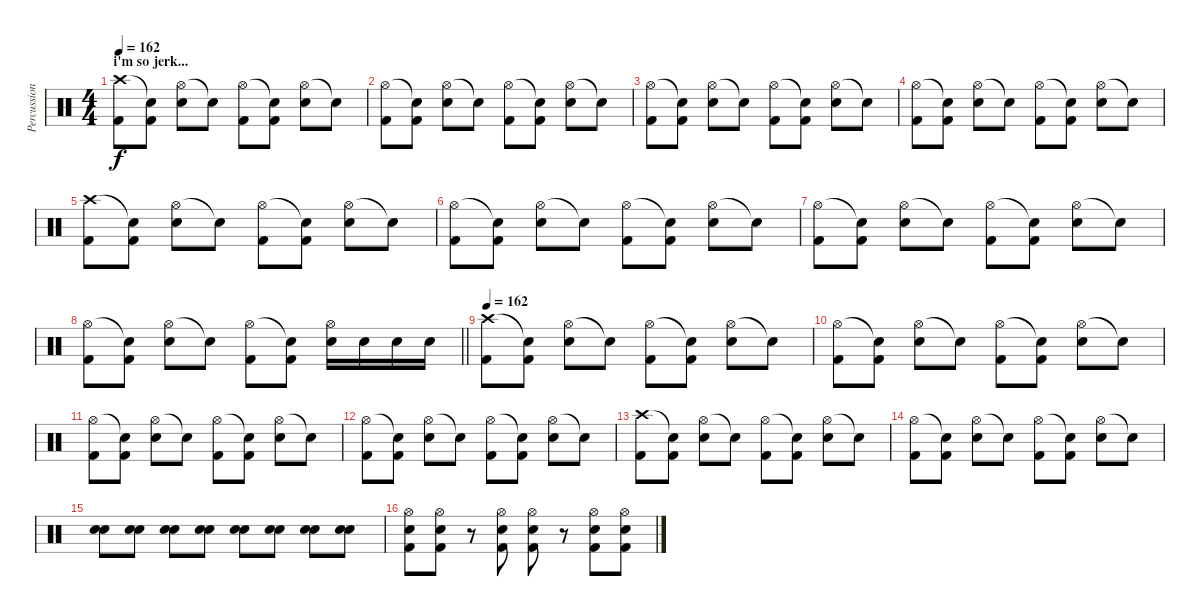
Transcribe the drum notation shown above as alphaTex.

\track ("Percussioni" "Percussion") {instrument percussion}
\staff {score}
\articulation defaults
\ts (4 4)
\section ("" "i'm so jerk...")
\tempo 162
\clef neutral
\ks c
("Crash high (hit)" "Kick (hit) 2").8{dy f} ("Snare (hit)"{t} "Kick (hit) 2").8 ("Hi-Hat (open)" "Snare (hit) 2").8 "Snare (hit)"{t}.8 ("Hi-Hat (open)" "Kick (hit) 2").8 ("Snare (hit)"{t} "Kick (hit) 2").8 ("Hi-Hat (open)" "Snare (hit) 2").8 "Snare (hit)"{t}.8 |
("Hi-Hat (open)" "Kick (hit) 2").8 ("Snare (hit)"{t} "Kick (hit) 2").8 ("Hi-Hat (open)" "Snare (hit) 2").8 "Snare (hit)"{t}.8 ("Hi-Hat (open)" "Kick (hit) 2").8 ("Snare (hit)"{t} "Kick (hit) 2").8 ("Hi-Hat (open)" "Snare (hit) 2").8 "Snare (hit)"{t}.8 |
("Hi-Hat (open)" "Kick (hit) 2").8 ("Snare (hit)"{t} "Kick (hit) 2").8 ("Hi-Hat (open)" "Snare (hit) 2").8 "Snare (hit)"{t}.8 ("Hi-Hat (open)" "Kick (hit) 2").8 ("Snare (hit)"{t} "Kick (hit) 2").8 ("Hi-Hat (open)" "Snare (hit) 2").8 "Snare (hit)"{t}.8 |
("Hi-Hat (open)" "Kick (hit) 2").8 ("Snare (hit)"{t} "Kick (hit) 2").8 ("Hi-Hat (open)" "Snare (hit) 2").8 "Snare (hit)"{t}.8 ("Hi-Hat (open)" "Kick (hit) 2").8 ("Snare (hit)"{t} "Kick (hit) 2").8 ("Hi-Hat (open)" "Snare (hit) 2").8 "Snare (hit)"{t}.8 |
("Crash high (hit)" "Kick (hit) 2").8 ("Snare (hit)"{t} "Kick (hit) 2").8 ("Hi-Hat (open)" "Snare (hit) 2").8 "Snare (hit)"{t}.8 ("Hi-Hat (open)" "Kick (hit) 2").8 ("Snare (hit)"{t} "Kick (hit) 2").8 ("Hi-Hat (open)" "Snare (hit) 2").8 "Snare (hit)"{t}.8 |
("Hi-Hat (open)" "Kick (hit) 2").8 ("Snare (hit)"{t} "Kick (hit) 2").8 ("Hi-Hat (open)" "Snare (hit) 2").8 "Snare (hit)"{t}.8 ("Hi-Hat (open)" "Kick (hit) 2").8 ("Snare (hit)"{t} "Kick (hit) 2").8 ("Hi-Hat (open)" "Snare (hit) 2").8 "Snare (hit)"{t}.8 |
("Hi-Hat (open)" "Kick (hit) 2").8 ("Snare (hit)"{t} "Kick (hit) 2").8 ("Hi-Hat (open)" "Snare (hit) 2").8 "Snare (hit)"{t}.8 ("Hi-Hat (open)" "Kick (hit) 2").8 ("Snare (hit)"{t} "Kick (hit) 2").8 ("Hi-Hat (open)" "Snare (hit) 2").8 "Snare (hit)"{t}.8 |
\barLineRight lightlight
("Hi-Hat (open)" "Kick (hit) 2").8 ("Snare (hit)"{t} "Kick (hit) 2").8 ("Hi-Hat (open)" "Snare (hit) 2").8 "Snare (hit)"{t}.8 ("Hi-Hat (open)" "Kick (hit) 2").8 ("Snare (hit)"{t} "Kick (hit) 2").8 ("Hi-Hat (open)" "Snare (hit) 2").16 "Snare (hit) 2".16 "Snare (hit) 2".16 "Snare (hit) 2".16 |
\tempo 162
("Crash high (hit)" "Kick (hit) 2").8 ("Snare (hit)"{t} "Kick (hit) 2").8 ("Hi-Hat (open)" "Snare (hit) 2").8 "Snare (hit)"{t}.8 ("Hi-Hat (open)" "Kick (hit) 2").8 ("Snare (hit)"{t} "Kick (hit) 2").8 ("Hi-Hat (open)" "Snare (hit) 2").8 "Snare (hit)"{t}.8 |
("Hi-Hat (open)" "Kick (hit) 2").8 ("Snare (hit)"{t} "Kick (hit) 2").8 ("Hi-Hat (open)" "Snare (hit) 2").8 "Snare (hit)"{t}.8 ("Hi-Hat (open)" "Kick (hit) 2").8 ("Snare (hit)"{t} "Kick (hit) 2").8 ("Hi-Hat (open)" "Snare (hit) 2").8 "Snare (hit)"{t}.8 |
("Hi-Hat (open)" "Kick (hit) 2").8 ("Snare (hit)"{t} "Kick (hit) 2").8 ("Hi-Hat (open)" "Snare (hit) 2").8 "Snare (hit)"{t}.8 ("Hi-Hat (open)" "Kick (hit) 2").8 ("Snare (hit)"{t} "Kick (hit) 2").8 ("Hi-Hat (open)" "Snare (hit) 2").8 "Snare (hit)"{t}.8 |
("Hi-Hat (open)" "Kick (hit) 2").8 ("Snare (hit)"{t} "Kick (hit) 2").8 ("Hi-Hat (open)" "Snare (hit) 2").8 "Snare (hit)"{t}.8 ("Hi-Hat (open)" "Kick (hit) 2").8 ("Snare (hit)"{t} "Kick (hit) 2").8 ("Hi-Hat (open)" "Snare (hit) 2").8 "Snare (hit)"{t}.8 |
("Crash high (hit)" "Kick (hit) 2").8 ("Snare (hit)"{t} "Kick (hit) 2").8 ("Hi-Hat (open)" "Snare (hit) 2").8 "Snare (hit)"{t}.8 ("Hi-Hat (open)" "Kick (hit) 2").8 ("Snare (hit)"{t} "Kick (hit) 2").8 ("Hi-Hat (open)" "Snare (hit) 2").8 "Snare (hit)"{t}.8 |
("Hi-Hat (open)" "Kick (hit) 2").8 ("Snare (hit)"{t} "Kick (hit) 2").8 ("Hi-Hat (open)" "Snare (hit) 2").8 "Snare (hit)"{t}.8 ("Hi-Hat (open)" "Kick (hit) 2").8 ("Snare (hit)"{t} "Kick (hit) 2").8 ("Hi-Hat (open)" "Snare (hit) 2").8 "Snare (hit)"{t}.8 |
("Snare (hit) 2" "Snare (hit) 2").8{volume 7} ("Snare (hit) 2" "Snare (hit) 2").8{volume 8} ("Snare (hit) 2" "Snare (hit) 2").8{volume 9} ("Snare (hit) 2" "Snare (hit) 2").8{volume 11} ("Snare (hit) 2" "Snare (hit) 2").8{volume 13} ("Snare (hit) 2" "Snare (hit) 2").8{volume 14} ("Snare (hit) 2" "Snare (hit) 2").8{volume 15} ("Snare (hit) 2" "Snare (hit) 2").8{volume 16} |
("Hi-Hat (open)" "Snare (hit) 2" "Kick (hit) 2").8 ("Hi-Hat (open)" "Snare (hit) 2" "Kick (hit) 2").8 r.8 ("Hi-Hat (open)" "Snare (hit) 2" "Kick (hit) 2").8 ("Hi-Hat (open)" "Snare (hit) 2" "Kick (hit) 2").8 r.8 ("Hi-Hat (open)" "Snare (hit) 2" "Kick (hit) 2").8 ("Hi-Hat (open)" "Snare (hit) 2" "Kick (hit) 2").8
